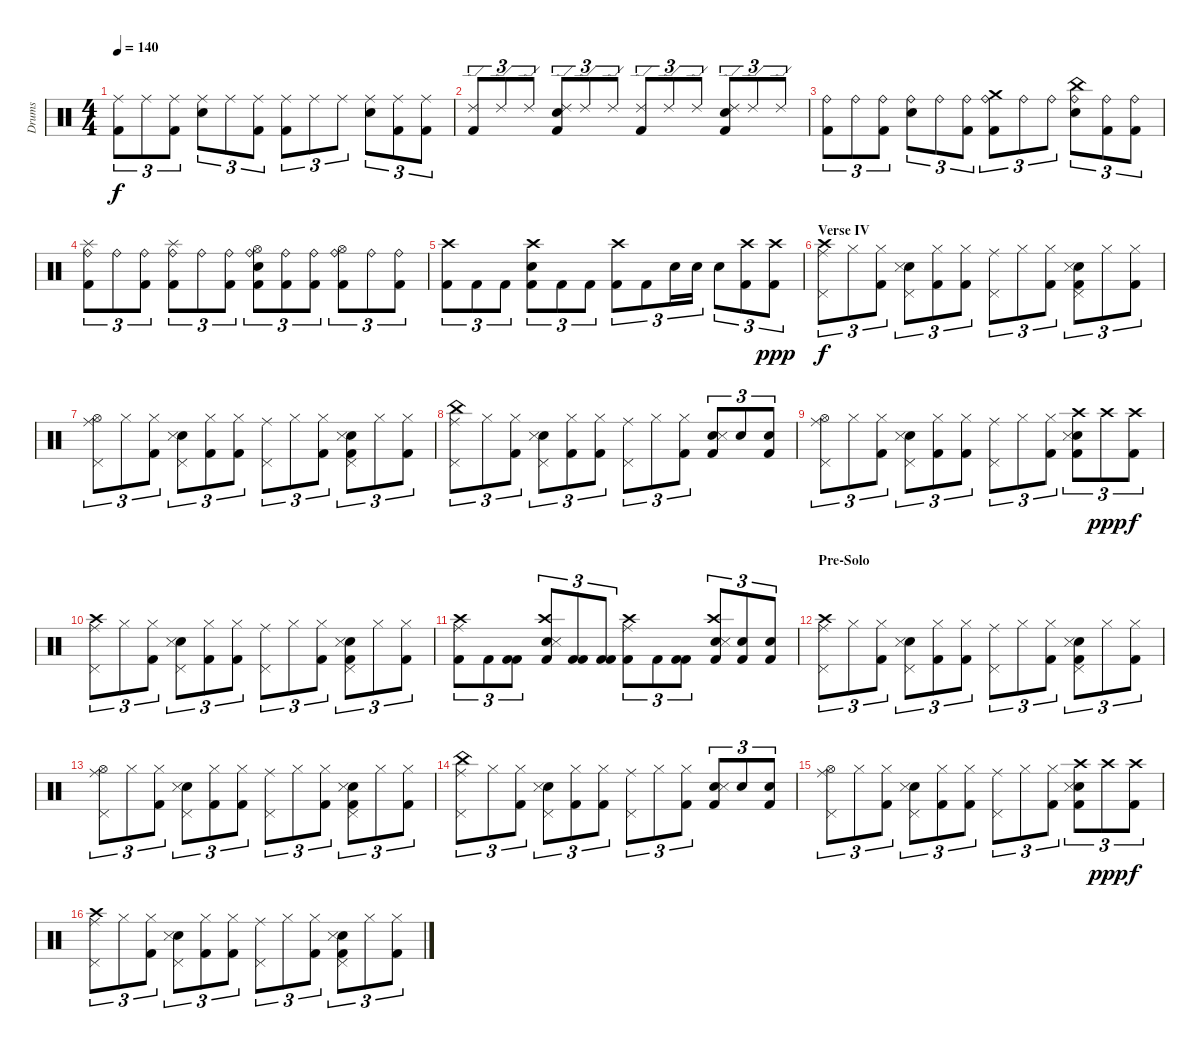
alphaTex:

\track ("Drums" "Drums") {instrument percussion}
\staff {score}
\articulation defaults
\ts (4 4)
\tempo 140
\clef neutral
\ks c
("Ride (middle)" "Kick (hit) 2").8{tu (3 2) dy f} "Ride (middle)".8{tu (3 2)} ("Ride (middle)" "Kick (hit) 2").8{tu (3 2)} ("Ride (middle)" "Electric Snare (hit)").8{tu (3 2)} "Ride (middle)".8{tu (3 2)} ("Ride (middle)" "Kick (hit) 2").8{tu (3 2)} ("Ride (middle)" "Kick (hit) 2").8{tu (3 2)} "Ride (middle)".8{tu (3 2)} "Ride (middle)".8{tu (3 2)} ("Ride (middle)" "Electric Snare (hit)").8{tu (3 2)} ("Ride (middle)" "Kick (hit) 2").8{tu (3 2)} ("Ride (middle)" "Kick (hit) 2").8{tu (3 2)} |
("Ride (edge) 2" "Kick (hit) 2").8{tu (3 2)} "Ride (edge) 2".8{tu (3 2)} "Ride (edge) 2".8{tu (3 2)} ("Ride (edge) 2" "Kick (hit) 2" "Electric Snare (hit)").8{tu (3 2)} "Ride (edge) 2".8{tu (3 2)} "Ride (edge) 2".8{tu (3 2)} ("Ride (edge) 2" "Kick (hit) 2").8{tu (3 2)} "Ride (edge) 2".8{tu (3 2)} "Ride (edge) 2".8{tu (3 2)} ("Ride (edge) 2" "Kick (hit) 2" "Electric Snare (hit)").8{tu (3 2)} "Ride (edge) 2".8{tu (3 2)} "Ride (edge) 2".8{tu (3 2)} |
("Ride (bell)" "Kick (hit) 2").8{tu (3 2)} "Ride (bell)".8{tu (3 2)} ("Ride (bell)" "Kick (hit) 2").8{tu (3 2)} ("Ride (bell)" "Electric Snare (hit)").8{tu (3 2)} "Ride (bell)".8{tu (3 2)} ("Ride (bell)" "Kick (hit) 2").8{tu (3 2)} ("Ride (bell)" "Crash medium (hit)" "Kick (hit) 2").8{tu (3 2)} "Ride (bell)".8{tu (3 2)} "Ride (bell)".8{tu (3 2)} ("Ride (bell)" "China (hit)" "Electric Snare (hit)").8{tu (3 2)} ("Ride (bell)" "Kick (hit) 2").8{tu (3 2)} ("Ride (bell)" "Kick (hit) 2").8{tu (3 2)} |
("Ride (bell)" "Splash (hit)" "Kick (hit) 2").8{tu (3 2)} "Ride (bell)".8{tu (3 2)} ("Ride (bell)" "Kick (hit) 2").8{tu (3 2)} ("Ride (bell)" "Splash (hit)" "Kick (hit) 2").8{tu (3 2)} "Ride (bell)".8{tu (3 2)} ("Ride (bell)" "Kick (hit) 2").8{tu (3 2)} ("Ride (bell)" "Hi-Hat (open)" "Kick (hit) 2" "Electric Snare (hit)").8{tu (3 2)} ("Ride (bell)" "Kick (hit) 2").8{tu (3 2)} ("Ride (bell)" "Kick (hit) 2").8{tu (3 2)} ("Ride (bell)" "Hi-Hat (open)" "Kick (hit) 2").8{tu (3 2)} "Ride (bell)".8{tu (3 2)} ("Ride (bell)" "Kick (hit) 2").8{tu (3 2)} |
("Crash high (hit)" "Kick (hit) 2").8{tu (3 2)} "Kick (hit) 2".8{tu (3 2)} "Kick (hit) 2".8{tu (3 2)} ("Crash high (hit)" "Electric Snare (hit)" "Kick (hit) 2").8{tu (3 2)} "Kick (hit) 2".8{tu (3 2)} "Kick (hit) 2".8{tu (3 2)} ("Crash high (hit)" "Kick (hit) 2").8{tu (3 2)} "Kick (hit) 2".8{tu (3 2)} "Electric Snare (hit)".16{tu (3 2)} "Electric Snare (hit)".16{tu (3 2)} "Electric Snare (hit)".8{tu (3 2)} ("Kick (hit) 2" "Crash high (hit)").8{tu (3 2)} ("Kick (hit) 2" "Crash high (hit)").8{tu (3 2) dy ppp} |
\section ("" "Verse IV")
("Pedal Hi-Hat (hit)" "Ride (middle)" "Crash high (hit)").8{tu (3 2) dy f} "Hi-Hat (closed)".8{tu (3 2)} ("Hi-Hat (closed)" "Kick (hit) 2").8{tu (3 2)} ("Pedal Hi-Hat (hit)" "Electric Snare (hit)" "Snare (side stick) 3").8{tu (3 2)} ("Hi-Hat (closed)" "Kick (hit) 2").8{tu (3 2)} ("Hi-Hat (closed)" "Kick (hit) 2").8{tu (3 2)} ("Pedal Hi-Hat (hit)" "Ride (middle)").8{tu (3 2)} "Hi-Hat (closed)".8{tu (3 2)} ("Hi-Hat (closed)" "Kick (hit) 2").8{tu (3 2)} ("Pedal Hi-Hat (hit)" "Electric Snare (hit)" "Snare (side stick) 3" "Kick (hit) 2").8{tu (3 2)} "Hi-Hat (closed)".8{tu (3 2)} ("Hi-Hat (closed)" "Kick (hit) 2").8{tu (3 2)} |
("Pedal Hi-Hat (hit)" "Ride (middle)" "Hi-Hat (open)").8{tu (3 2)} "Hi-Hat (closed)".8{tu (3 2)} ("Hi-Hat (closed)" "Kick (hit) 2").8{tu (3 2)} ("Pedal Hi-Hat (hit)" "Electric Snare (hit)" "Snare (side stick) 3").8{tu (3 2)} ("Hi-Hat (closed)" "Kick (hit) 2").8{tu (3 2)} ("Hi-Hat (closed)" "Kick (hit) 2").8{tu (3 2)} ("Pedal Hi-Hat (hit)" "Ride (middle)").8{tu (3 2)} "Hi-Hat (closed)".8{tu (3 2)} ("Hi-Hat (closed)" "Kick (hit) 2").8{tu (3 2)} ("Pedal Hi-Hat (hit)" "Electric Snare (hit)" "Snare (side stick) 3" "Kick (hit) 2").8{tu (3 2)} "Hi-Hat (closed)".8{tu (3 2)} ("Hi-Hat (closed)" "Kick (hit) 2").8{tu (3 2)} |
("Pedal Hi-Hat (hit)" "Ride (middle)" "China (hit)").8{tu (3 2)} "Hi-Hat (closed)".8{tu (3 2)} ("Hi-Hat (closed)" "Kick (hit) 2").8{tu (3 2)} ("Pedal Hi-Hat (hit)" "Electric Snare (hit)" "Snare (side stick) 3").8{tu (3 2)} ("Hi-Hat (closed)" "Kick (hit) 2").8{tu (3 2)} ("Hi-Hat (closed)" "Kick (hit) 2").8{tu (3 2)} ("Pedal Hi-Hat (hit)" "Ride (middle)").8{tu (3 2)} "Hi-Hat (closed)".8{tu (3 2)} ("Hi-Hat (closed)" "Kick (hit) 2").8{tu (3 2)} ("Electric Snare (hit)" "Snare (side stick) 3" "Kick (hit) 2").8{tu (3 2)} "Electric Snare (hit)".8{tu (3 2)} ("Electric Snare (hit)" "Kick (hit) 2").8{tu (3 2)} |
("Pedal Hi-Hat (hit)" "Ride (middle)" "Hi-Hat (open)").8{tu (3 2)} "Hi-Hat (closed)".8{tu (3 2)} ("Hi-Hat (closed)" "Kick (hit) 2").8{tu (3 2)} ("Pedal Hi-Hat (hit)" "Electric Snare (hit)" "Snare (side stick) 3").8{tu (3 2)} ("Hi-Hat (closed)" "Kick (hit) 2").8{tu (3 2)} ("Hi-Hat (closed)" "Kick (hit) 2").8{tu (3 2)} ("Pedal Hi-Hat (hit)" "Ride (middle)").8{tu (3 2)} "Hi-Hat (closed)".8{tu (3 2)} ("Hi-Hat (closed)" "Kick (hit) 2").8{tu (3 2)} ("Crash high (hit)" "Electric Snare (hit)" "Snare (side stick) 3" "Kick (hit) 2").8{tu (3 2)} "Crash high (hit)".8{tu (3 2) dy ppp} ("Crash high (hit)" "Kick (hit) 2").8{tu (3 2) dy f} |
("Pedal Hi-Hat (hit)" "Ride (middle)" "Crash high (hit)").8{tu (3 2)} "Hi-Hat (closed)".8{tu (3 2)} ("Hi-Hat (closed)" "Kick (hit) 2").8{tu (3 2)} ("Pedal Hi-Hat (hit)" "Electric Snare (hit)" "Snare (side stick) 3").8{tu (3 2)} ("Hi-Hat (closed)" "Kick (hit) 2").8{tu (3 2)} ("Hi-Hat (closed)" "Kick (hit) 2").8{tu (3 2)} ("Pedal Hi-Hat (hit)" "Ride (middle)").8{tu (3 2)} "Hi-Hat (closed)".8{tu (3 2)} ("Hi-Hat (closed)" "Kick (hit) 2").8{tu (3 2)} ("Pedal Hi-Hat (hit)" "Electric Snare (hit)" "Snare (side stick) 3" "Kick (hit) 2").8{tu (3 2)} "Hi-Hat (closed)".8{tu (3 2)} ("Hi-Hat (closed)" "Kick (hit) 2").8{tu (3 2)} |
("Kick (hit) 2" "Ride (middle)" "Crash high (hit)").8{tu (3 2)} "Kick (hit) 2".8{tu (3 2)} ("Kick (hit) 2" "Kick (hit) 2").8{tu (3 2)} ("Kick (hit) 2" "Electric Snare (hit)" "Snare (side stick) 3" "Crash high (hit)").8{tu (3 2)} ("Kick (hit) 2" "Kick (hit) 2").8{tu (3 2)} ("Kick (hit) 2" "Kick (hit) 2").8{tu (3 2)} ("Kick (hit) 2" "Ride (middle)" "Crash high (hit)").8{tu (3 2)} "Kick (hit) 2".8{tu (3 2)} ("Kick (hit) 2" "Kick (hit) 2").8{tu (3 2)} ("Kick (hit) 2" "Electric Snare (hit)" "Snare (side stick) 3" "Crash high (hit)").8{tu (3 2)} ("Kick (hit) 2" "Electric Snare (hit)").8{tu (3 2)} ("Kick (hit) 2" "Electric Snare (hit)").8{tu (3 2)} |
\section ("" "Pre-Solo")
("Pedal Hi-Hat (hit)" "Ride (middle)" "Crash high (hit)").8{tu (3 2)} "Hi-Hat (closed)".8{tu (3 2)} ("Hi-Hat (closed)" "Kick (hit) 2").8{tu (3 2)} ("Pedal Hi-Hat (hit)" "Electric Snare (hit)" "Snare (side stick) 3").8{tu (3 2)} ("Hi-Hat (closed)" "Kick (hit) 2").8{tu (3 2)} ("Hi-Hat (closed)" "Kick (hit) 2").8{tu (3 2)} ("Pedal Hi-Hat (hit)" "Ride (middle)").8{tu (3 2)} "Hi-Hat (closed)".8{tu (3 2)} ("Hi-Hat (closed)" "Kick (hit) 2").8{tu (3 2)} ("Pedal Hi-Hat (hit)" "Electric Snare (hit)" "Snare (side stick) 3" "Kick (hit) 2").8{tu (3 2)} "Hi-Hat (closed)".8{tu (3 2)} ("Hi-Hat (closed)" "Kick (hit) 2").8{tu (3 2)} |
("Pedal Hi-Hat (hit)" "Ride (middle)" "Hi-Hat (open)").8{tu (3 2)} "Hi-Hat (closed)".8{tu (3 2)} ("Hi-Hat (closed)" "Kick (hit) 2").8{tu (3 2)} ("Pedal Hi-Hat (hit)" "Electric Snare (hit)" "Snare (side stick) 3").8{tu (3 2)} ("Hi-Hat (closed)" "Kick (hit) 2").8{tu (3 2)} ("Hi-Hat (closed)" "Kick (hit) 2").8{tu (3 2)} ("Pedal Hi-Hat (hit)" "Ride (middle)").8{tu (3 2)} "Hi-Hat (closed)".8{tu (3 2)} ("Hi-Hat (closed)" "Kick (hit) 2").8{tu (3 2)} ("Pedal Hi-Hat (hit)" "Electric Snare (hit)" "Snare (side stick) 3" "Kick (hit) 2").8{tu (3 2)} "Hi-Hat (closed)".8{tu (3 2)} ("Hi-Hat (closed)" "Kick (hit) 2").8{tu (3 2)} |
("Pedal Hi-Hat (hit)" "Ride (middle)" "China (hit)").8{tu (3 2)} "Hi-Hat (closed)".8{tu (3 2)} ("Hi-Hat (closed)" "Kick (hit) 2").8{tu (3 2)} ("Pedal Hi-Hat (hit)" "Electric Snare (hit)" "Snare (side stick) 3").8{tu (3 2)} ("Hi-Hat (closed)" "Kick (hit) 2").8{tu (3 2)} ("Hi-Hat (closed)" "Kick (hit) 2").8{tu (3 2)} ("Pedal Hi-Hat (hit)" "Ride (middle)").8{tu (3 2)} "Hi-Hat (closed)".8{tu (3 2)} ("Hi-Hat (closed)" "Kick (hit) 2").8{tu (3 2)} ("Electric Snare (hit)" "Snare (side stick) 3" "Kick (hit) 2").8{tu (3 2)} "Electric Snare (hit)".8{tu (3 2)} ("Electric Snare (hit)" "Kick (hit) 2").8{tu (3 2)} |
("Pedal Hi-Hat (hit)" "Ride (middle)" "Hi-Hat (open)").8{tu (3 2)} "Hi-Hat (closed)".8{tu (3 2)} ("Hi-Hat (closed)" "Kick (hit) 2").8{tu (3 2)} ("Pedal Hi-Hat (hit)" "Electric Snare (hit)" "Snare (side stick) 3").8{tu (3 2)} ("Hi-Hat (closed)" "Kick (hit) 2").8{tu (3 2)} ("Hi-Hat (closed)" "Kick (hit) 2").8{tu (3 2)} ("Pedal Hi-Hat (hit)" "Ride (middle)").8{tu (3 2)} "Hi-Hat (closed)".8{tu (3 2)} ("Hi-Hat (closed)" "Kick (hit) 2").8{tu (3 2)} ("Crash high (hit)" "Electric Snare (hit)" "Snare (side stick) 3" "Kick (hit) 2").8{tu (3 2)} "Crash high (hit)".8{tu (3 2) dy ppp} ("Crash high (hit)" "Kick (hit) 2").8{tu (3 2) dy f} |
("Pedal Hi-Hat (hit)" "Ride (middle)" "Crash high (hit)").8{tu (3 2)} "Hi-Hat (closed)".8{tu (3 2)} ("Hi-Hat (closed)" "Kick (hit) 2").8{tu (3 2)} ("Pedal Hi-Hat (hit)" "Electric Snare (hit)" "Snare (side stick) 3").8{tu (3 2)} ("Hi-Hat (closed)" "Kick (hit) 2").8{tu (3 2)} ("Hi-Hat (closed)" "Kick (hit) 2").8{tu (3 2)} ("Pedal Hi-Hat (hit)" "Ride (middle)").8{tu (3 2)} "Hi-Hat (closed)".8{tu (3 2)} ("Hi-Hat (closed)" "Kick (hit) 2").8{tu (3 2)} ("Pedal Hi-Hat (hit)" "Electric Snare (hit)" "Snare (side stick) 3" "Kick (hit) 2").8{tu (3 2)} "Hi-Hat (closed)".8{tu (3 2)} ("Hi-Hat (closed)" "Kick (hit) 2").8{tu (3 2)}
